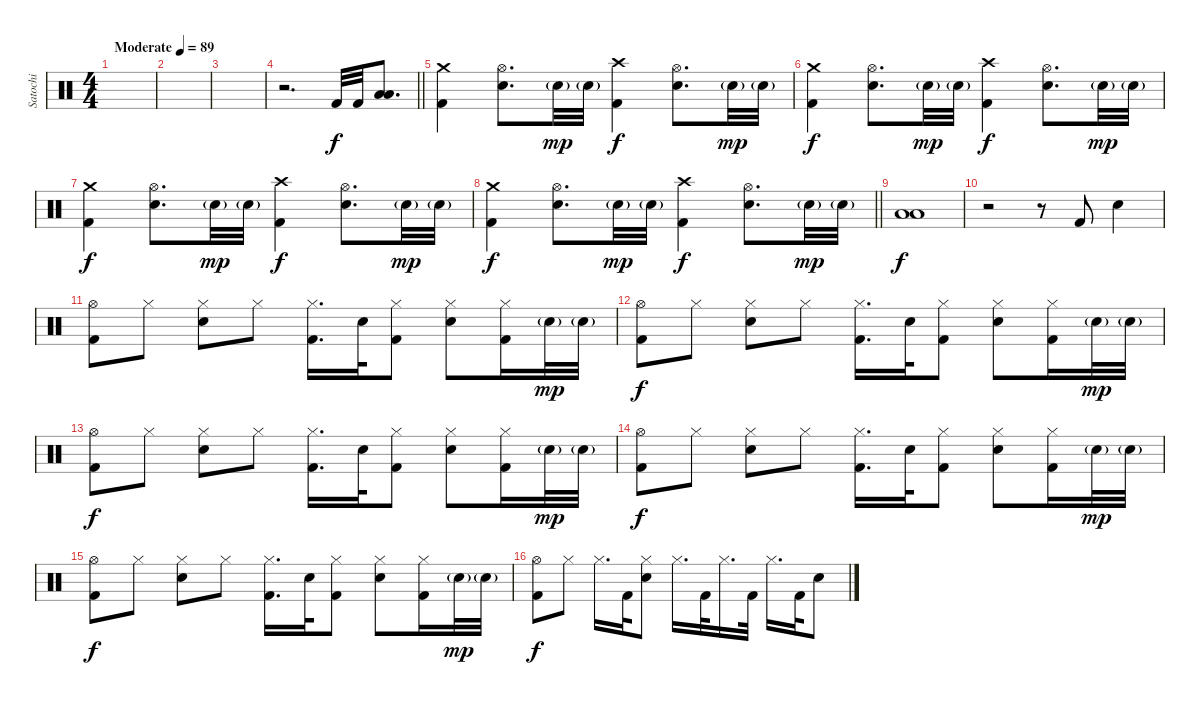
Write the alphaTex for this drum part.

\track ("Satochi" "Satochi") {instrument percussion}
\staff {score}
\articulation defaults
\ts (4 4)
\tempo (89 "Moderate")
\clef neutral
\ks c
|
|
|
\barLineRight lightlight
r.2{d} "Kick (hit) 2".32 "Kick (hit) 2".32 ("Low Tom (hit)" "Low Tom (hit)").8{d} |
("Crash medium (hit)" "Kick (hit) 2").4 ("Hi-Hat (open)" "Electric Snare (hit)").8{d} "Electric Snare (hit)"{g}.32{dy mp} "Electric Snare (hit)"{g}.32 ("Crash high (hit)" "Kick (hit) 2").4{dy f} ("Hi-Hat (open)" "Electric Snare (hit)").8{d} "Electric Snare (hit)"{g}.32{dy mp} "Electric Snare (hit)"{g}.32 |
("Crash medium (hit)" "Kick (hit) 2").4{dy f} ("Hi-Hat (open)" "Electric Snare (hit)").8{d} "Electric Snare (hit)"{g}.32{dy mp} "Electric Snare (hit)"{g}.32 ("Crash high (hit)" "Kick (hit) 2").4{dy f} ("Hi-Hat (open)" "Electric Snare (hit)").8{d} "Electric Snare (hit)"{g}.32{dy mp} "Electric Snare (hit)"{g}.32 |
("Crash medium (hit)" "Kick (hit) 2").4{dy f} ("Hi-Hat (open)" "Electric Snare (hit)").8{d} "Electric Snare (hit)"{g}.32{dy mp} "Electric Snare (hit)"{g}.32 ("Crash high (hit)" "Kick (hit) 2").4{dy f} ("Hi-Hat (open)" "Electric Snare (hit)").8{d} "Electric Snare (hit)"{g}.32{dy mp} "Electric Snare (hit)"{g}.32 |
\barLineRight lightlight
("Crash medium (hit)" "Kick (hit) 2").4{dy f} ("Hi-Hat (open)" "Electric Snare (hit)").8{d} "Electric Snare (hit)"{g}.32{dy mp} "Electric Snare (hit)"{g}.32 ("Crash high (hit)" "Kick (hit) 2").4{dy f} ("Hi-Hat (open)" "Electric Snare (hit)").8{d} "Electric Snare (hit)"{g}.32{dy mp} "Electric Snare (hit)"{g}.32 |
("Low Tom (hit)" "Low Tom (hit)").1{dy f} |
r.2 r.8 "Kick (hit) 2".8 "Electric Snare (hit)".4 |
("Hi-Hat (open)" "Kick (hit) 2").8 "Hi-Hat (closed)".8 ("Hi-Hat (closed)" "Electric Snare (hit)").8 "Hi-Hat (closed)".8 ("Hi-Hat (closed)" "Kick (hit) 2").16{d} "Electric Snare (hit)".32 ("Hi-Hat (closed)" "Kick (hit) 2").8 ("Hi-Hat (closed)" "Electric Snare (hit)").8 ("Hi-Hat (closed)" "Kick (hit) 2").16 "Electric Snare (hit)"{g}.32{dy mp} "Electric Snare (hit)"{g}.32 |
("Hi-Hat (open)" "Kick (hit) 2").8{dy f} "Hi-Hat (closed)".8 ("Hi-Hat (closed)" "Electric Snare (hit)").8 "Hi-Hat (closed)".8 ("Hi-Hat (closed)" "Kick (hit) 2").16{d} "Electric Snare (hit)".32 ("Hi-Hat (closed)" "Kick (hit) 2").8 ("Hi-Hat (closed)" "Electric Snare (hit)").8 ("Hi-Hat (closed)" "Kick (hit) 2").16 "Electric Snare (hit)"{g}.32{dy mp} "Electric Snare (hit)"{g}.32 |
("Hi-Hat (open)" "Kick (hit) 2").8{dy f} "Hi-Hat (closed)".8 ("Hi-Hat (closed)" "Electric Snare (hit)").8 "Hi-Hat (closed)".8 ("Hi-Hat (closed)" "Kick (hit) 2").16{d} "Electric Snare (hit)".32 ("Hi-Hat (closed)" "Kick (hit) 2").8 ("Hi-Hat (closed)" "Electric Snare (hit)").8 ("Hi-Hat (closed)" "Kick (hit) 2").16 "Electric Snare (hit)"{g}.32{dy mp} "Electric Snare (hit)"{g}.32 |
("Hi-Hat (open)" "Kick (hit) 2").8{dy f} "Hi-Hat (closed)".8 ("Hi-Hat (closed)" "Electric Snare (hit)").8 "Hi-Hat (closed)".8 ("Hi-Hat (closed)" "Kick (hit) 2").16{d} "Electric Snare (hit)".32 ("Hi-Hat (closed)" "Kick (hit) 2").8 ("Hi-Hat (closed)" "Electric Snare (hit)").8 ("Hi-Hat (closed)" "Kick (hit) 2").16 "Electric Snare (hit)"{g}.32{dy mp} "Electric Snare (hit)"{g}.32 |
("Hi-Hat (open)" "Kick (hit) 2").8{dy f} "Hi-Hat (closed)".8 ("Hi-Hat (closed)" "Electric Snare (hit)").8 "Hi-Hat (closed)".8 ("Hi-Hat (closed)" "Kick (hit) 2").16{d} "Electric Snare (hit)".32 ("Hi-Hat (closed)" "Kick (hit) 2").8 ("Hi-Hat (closed)" "Electric Snare (hit)").8 ("Hi-Hat (closed)" "Kick (hit) 2").16 "Electric Snare (hit)"{g}.32{dy mp} "Electric Snare (hit)"{g}.32 |
("Hi-Hat (open)" "Kick (hit) 2").8{dy f} "Hi-Hat (closed)".8 "Hi-Hat (closed)".16{d} "Kick (hit) 2".32 ("Hi-Hat (closed)" "Electric Snare (hit)").8 "Hi-Hat (closed)".16{d} "Kick (hit) 2".32 "Hi-Hat (closed)".16{d} "Kick (hit) 2".32 "Hi-Hat (closed)".16{d} "Kick (hit) 2".32 "Electric Snare (hit)".8
